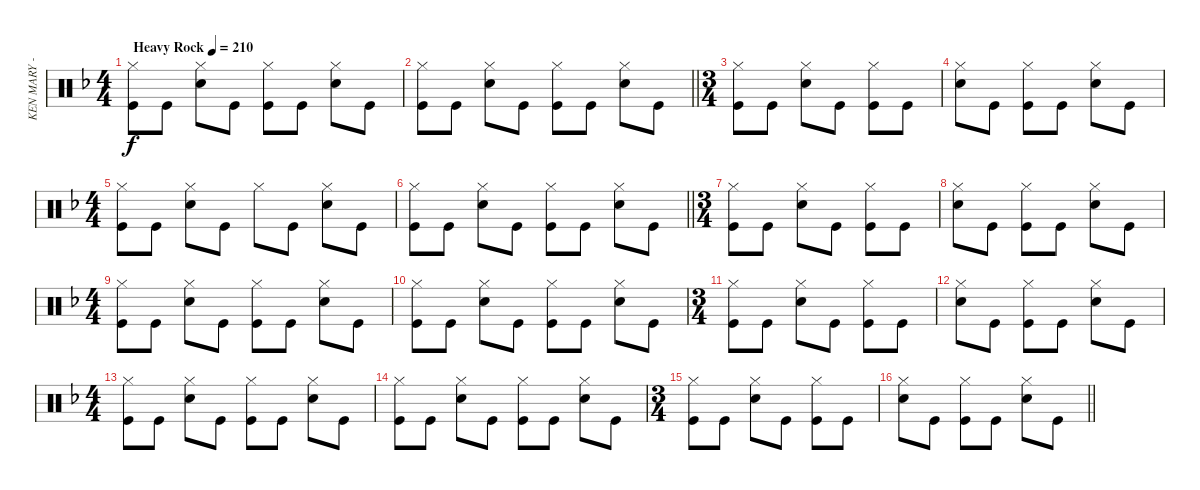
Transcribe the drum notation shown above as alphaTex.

\track ("KEN MARY - DRUMS" "KEN MARY -") {instrument percussion}
\staff {score}
\articulation defaults
\ts (4 4)
\tempo (210 "Heavy Rock")
\clef neutral
\ks f
("Hi-Hat (closed)" "Kick (hit)").8{dy f} "Kick (hit)".8 ("Hi-Hat (closed)" "Snare (hit) 2").8 "Kick (hit)".8 ("Hi-Hat (closed)" "Kick (hit)").8 "Kick (hit)".8 ("Hi-Hat (closed)" "Snare (hit) 2").8 "Kick (hit)".8 |
\barLineRight lightlight
("Hi-Hat (closed)" "Kick (hit)").8 "Kick (hit)".8 ("Hi-Hat (closed)" "Snare (hit) 2").8 "Kick (hit)".8 ("Hi-Hat (closed)" "Kick (hit)").8 "Kick (hit)".8 ("Hi-Hat (closed)" "Snare (hit) 2").8 "Kick (hit)".8 |
\ts (3 4)
("Hi-Hat (closed)" "Kick (hit)").8 "Kick (hit)".8 ("Hi-Hat (closed)" "Snare (hit) 2").8 "Kick (hit)".8 ("Hi-Hat (closed)" "Kick (hit)").8 "Kick (hit)".8 |
("Hi-Hat (closed)" "Snare (hit) 2").8 "Kick (hit)".8 ("Hi-Hat (closed)" "Kick (hit)").8 "Kick (hit)".8 ("Hi-Hat (closed)" "Snare (hit) 2").8 "Kick (hit)".8 |
\ts (4 4)
("Hi-Hat (closed)" "Kick (hit)").8 "Kick (hit)".8 ("Hi-Hat (closed)" "Snare (hit) 2").8 "Kick (hit)".8 "Hi-Hat (closed)".8 "Kick (hit)".8 ("Hi-Hat (closed)" "Snare (hit) 2").8 "Kick (hit)".8 |
\barLineRight lightlight
("Hi-Hat (closed)" "Kick (hit)").8 "Kick (hit)".8 ("Hi-Hat (closed)" "Snare (hit) 2").8 "Kick (hit)".8 ("Hi-Hat (closed)" "Kick (hit)").8 "Kick (hit)".8 ("Hi-Hat (closed)" "Snare (hit) 2").8 "Kick (hit)".8 |
\ts (3 4)
("Hi-Hat (closed)" "Kick (hit)").8 "Kick (hit)".8 ("Hi-Hat (closed)" "Snare (hit) 2").8 "Kick (hit)".8 ("Hi-Hat (closed)" "Kick (hit)").8 "Kick (hit)".8 |
("Hi-Hat (closed)" "Snare (hit) 2").8 "Kick (hit)".8 ("Hi-Hat (closed)" "Kick (hit)").8 "Kick (hit)".8 ("Hi-Hat (closed)" "Snare (hit) 2").8 "Kick (hit)".8 |
\ts (4 4)
("Hi-Hat (closed)" "Kick (hit)").8 "Kick (hit)".8 ("Hi-Hat (closed)" "Snare (hit) 2").8 "Kick (hit)".8 ("Hi-Hat (closed)" "Kick (hit)").8 "Kick (hit)".8 ("Hi-Hat (closed)" "Snare (hit) 2").8 "Kick (hit)".8 |
("Hi-Hat (closed)" "Kick (hit)").8 "Kick (hit)".8 ("Hi-Hat (closed)" "Snare (hit) 2").8 "Kick (hit)".8 ("Hi-Hat (closed)" "Kick (hit)").8 "Kick (hit)".8 ("Hi-Hat (closed)" "Snare (hit) 2").8 "Kick (hit)".8 |
\ts (3 4)
("Hi-Hat (closed)" "Kick (hit)").8 "Kick (hit)".8 ("Hi-Hat (closed)" "Snare (hit) 2").8 "Kick (hit)".8 ("Hi-Hat (closed)" "Kick (hit)").8 "Kick (hit)".8 |
("Hi-Hat (closed)" "Snare (hit) 2").8 "Kick (hit)".8 ("Hi-Hat (closed)" "Kick (hit)").8 "Kick (hit)".8 ("Hi-Hat (closed)" "Snare (hit) 2").8 "Kick (hit)".8 |
\ts (4 4)
("Hi-Hat (closed)" "Kick (hit)").8 "Kick (hit)".8 ("Hi-Hat (closed)" "Snare (hit) 2").8 "Kick (hit)".8 ("Hi-Hat (closed)" "Kick (hit)").8 "Kick (hit)".8 ("Hi-Hat (closed)" "Snare (hit) 2").8 "Kick (hit)".8 |
("Hi-Hat (closed)" "Kick (hit)").8 "Kick (hit)".8 ("Hi-Hat (closed)" "Snare (hit) 2").8 "Kick (hit)".8 ("Hi-Hat (closed)" "Kick (hit)").8 "Kick (hit)".8 ("Hi-Hat (closed)" "Snare (hit) 2").8 "Kick (hit)".8 |
\ts (3 4)
("Hi-Hat (closed)" "Kick (hit)").8 "Kick (hit)".8 ("Hi-Hat (closed)" "Snare (hit) 2").8 "Kick (hit)".8 ("Hi-Hat (closed)" "Kick (hit)").8 "Kick (hit)".8 |
\barLineRight lightlight
("Hi-Hat (closed)" "Snare (hit) 2").8 "Kick (hit)".8 ("Hi-Hat (closed)" "Kick (hit)").8 "Kick (hit)".8 ("Hi-Hat (closed)" "Snare (hit) 2").8 "Kick (hit)".8
